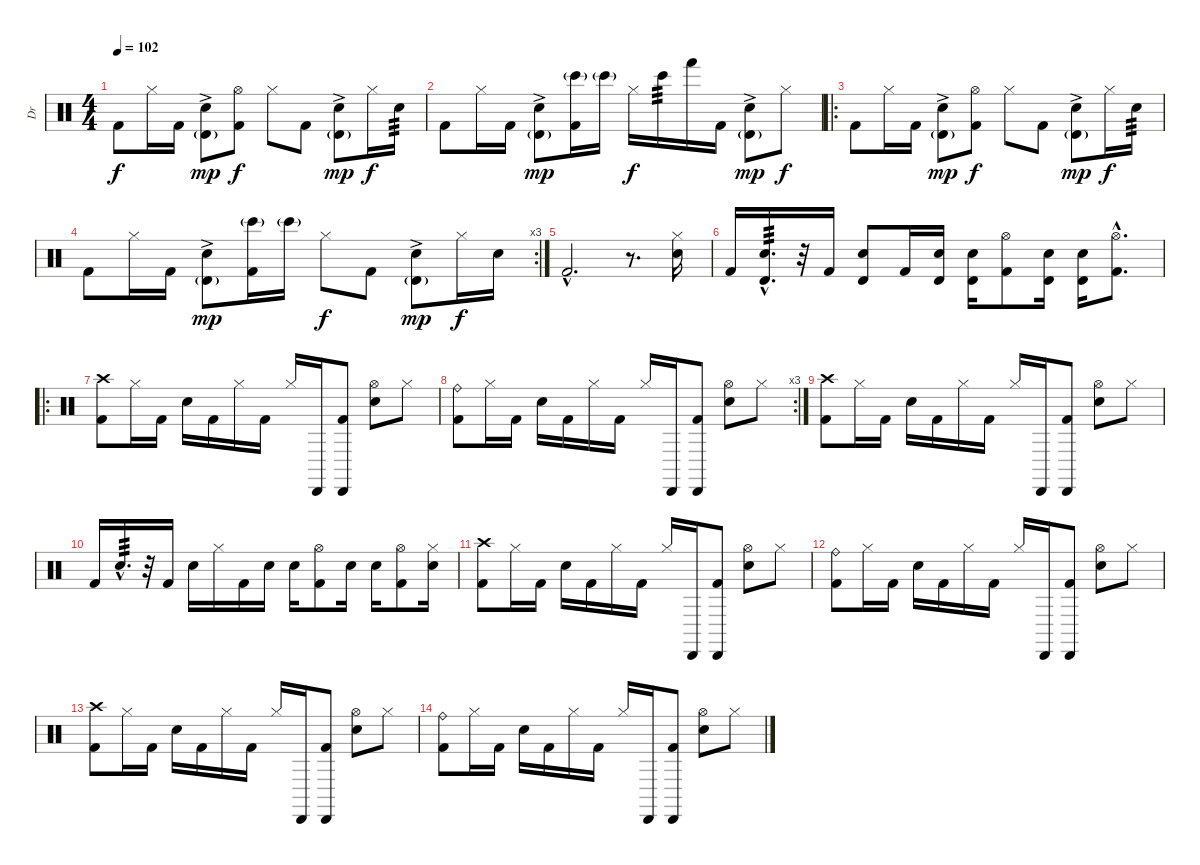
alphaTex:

\track ("Dr" "Dr") {instrument percussion}
\staff {score}
\articulation defaults
\ts (4 4)
\tempo 102
\clef neutral
\ks c "Kick (hit) 2".8{dy f} "Hi-Hat (closed)".16 "Kick (hit) 2".16
("Electric Snare (hit)"{ac} "Timbale high (hit)"{g}).8{dy mp} ("Hi-Hat (open)" "Kick (hit) 2").8{dy f} "Hi-Hat (closed)".8 "Kick (hit) 2".8 ("Electric Snare (hit)"{ac} "Timbale high (hit)"{g}).8{dy mp} "Hi-Hat (closed)".16{dy f} "Electric Snare (hit)".16{tp 3} |
"Kick (hit) 2".8 "Hi-Hat (closed)".16 "Kick (hit) 2".16 ("Electric Snare (hit)"{ac} "Timbale high (hit)"{g}).8{dy mp} ("Bongo High (hit)"{g} "Kick (hit) 2").16 "Bongo High (hit)"{g}.16 "Hi-Hat (closed)".16{dy f} "Bongo High (hit)".16{tp 3} "Hand (hit)".16 "Kick (hit) 2".16 ("Electric Snare (hit)"{ac} "Timbale high (hit)"{g}).8{dy mp} "Hi-Hat (closed)".8{dy f} |
\ro "Kick (hit) 2".8 "Hi-Hat (closed)".16 "Kick (hit) 2".16
("Electric Snare (hit)"{ac} "Timbale high (hit)"{g}).8{dy mp} ("Hi-Hat (open)" "Kick (hit) 2").8{dy f} "Hi-Hat (closed)".8 "Kick (hit) 2".8 ("Electric Snare (hit)"{ac} "Timbale high (hit)"{g}).8{dy mp} "Hi-Hat (closed)".16{dy f} "Electric Snare (hit)".16{tp 3} |
\rc 3 "Kick (hit) 2".8 "Hi-Hat (closed)".16 "Kick (hit) 2".16
("Electric Snare (hit)"{ac} "Timbale high (hit)"{g}).8{dy mp} ("Bongo High (hit)"{g} "Kick (hit) 2").16 "Bongo High (hit)"{g}.16 "Hi-Hat (closed)".8{dy f} "Kick (hit) 2".8 ("Electric Snare (hit)"{ac} "Timbale high (hit)"{g}).8{dy mp} "Hi-Hat (closed)".16{dy f} "Electric Snare (hit)".16 |
"Kick (hit) 2"{hac}.2{d} r.8{d} ("Hi-Hat (closed)" "Electric Snare (hit)").16 |
"Kick (hit) 2".16 ("Timbale high (hit)"{hac} "Electric Snare (hit)"{hac}).16{d tp 3} r.32 "Kick (hit) 2".16 ("Timbale high (hit)" "Electric Snare (hit)").8 "Kick (hit) 2".16 ("Timbale high (hit)" "Electric Snare (hit)").16 ("Timbale high (hit)" "Electric Snare (hit)").16 ("Hi-Hat (open)" "Kick (hit) 2").8 ("Timbale high (hit)" "Electric Snare (hit)").16 ("Timbale high (hit)" "Electric Snare (hit)").16 ("Hi-Hat (open)"{hac} "Kick (hit) 2"{hac}).8{d} |
\ro
("Crash high (hit)" "Kick (hit) 2").8 "Hi-Hat (closed)".16 "Kick (hit) 2".16 "Electric Snare (hit)".16 "Kick (hit) 2".16 "Hi-Hat (closed)".16 "Kick (hit) 2".16 "Hi-Hat (closed)".16 "Cabasa (hit)".16 ("Cabasa (hit)" "Kick (hit) 2").8 ("Hi-Hat (open)" "Electric Snare (hit)").8 "Hi-Hat (closed)".8 |
\rc 3
("Ride (bell)" "Kick (hit) 2").8 "Hi-Hat (closed)".16 "Kick (hit) 2".16 "Electric Snare (hit)".16 "Kick (hit) 2".16 "Hi-Hat (closed)".16 "Kick (hit) 2".16 "Hi-Hat (closed)".16 "Cabasa (hit)".16 ("Cabasa (hit)" "Kick (hit) 2").8 ("Hi-Hat (open)" "Electric Snare (hit)").8 "Hi-Hat (closed)".8 |
("Crash high (hit)" "Kick (hit) 2").8 "Hi-Hat (closed)".16 "Kick (hit) 2".16 "Electric Snare (hit)".16 "Kick (hit) 2".16 "Hi-Hat (closed)".16 "Kick (hit) 2".16 "Hi-Hat (closed)".16 "Cabasa (hit)".16 ("Cabasa (hit)" "Kick (hit) 2").8 ("Hi-Hat (open)" "Electric Snare (hit)").8 "Hi-Hat (closed)".8 |
"Kick (hit) 2".16 "Electric Snare (hit)"{hac}.16{d tp 3} r.32 "Kick (hit) 2".16 "Electric Snare (hit)".16 "Hi-Hat (closed)".16 "Kick (hit) 2".16 "Electric Snare (hit)".16 "Electric Snare (hit)".16 ("Hi-Hat (open)" "Kick (hit) 2").8 "Electric Snare (hit)".16 "Electric Snare (hit)".16 ("Hi-Hat (open)" "Kick (hit) 2").8 ("Hi-Hat (closed)" "Electric Snare (hit)").16 |
("Crash high (hit)" "Kick (hit) 2").8 "Hi-Hat (closed)".16 "Kick (hit) 2".16 "Electric Snare (hit)".16 "Kick (hit) 2".16 "Hi-Hat (closed)".16 "Kick (hit) 2".16 "Hi-Hat (closed)".16 "Cabasa (hit)".16 ("Cabasa (hit)" "Kick (hit) 2").8 ("Hi-Hat (open)" "Electric Snare (hit)").8 "Hi-Hat (closed)".8 |
("Ride (bell)" "Kick (hit) 2").8 "Hi-Hat (closed)".16 "Kick (hit) 2".16 "Electric Snare (hit)".16 "Kick (hit) 2".16 "Hi-Hat (closed)".16 "Kick (hit) 2".16 "Hi-Hat (closed)".16 "Cabasa (hit)".16 ("Cabasa (hit)" "Kick (hit) 2").8 ("Hi-Hat (open)" "Electric Snare (hit)").8 "Hi-Hat (closed)".8 |
("Crash high (hit)" "Kick (hit) 2").8 "Hi-Hat (closed)".16 "Kick (hit) 2".16 "Electric Snare (hit)".16 "Kick (hit) 2".16 "Hi-Hat (closed)".16 "Kick (hit) 2".16 "Hi-Hat (closed)".16 "Cabasa (hit)".16 ("Cabasa (hit)" "Kick (hit) 2").8 ("Hi-Hat (open)" "Electric Snare (hit)").8 "Hi-Hat (closed)".8 |
("Ride (bell)" "Kick (hit) 2").8 "Hi-Hat (closed)".16 "Kick (hit) 2".16 "Electric Snare (hit)".16 "Kick (hit) 2".16 "Hi-Hat (closed)".16 "Kick (hit) 2".16 "Hi-Hat (closed)".16 "Cabasa (hit)".16 ("Cabasa (hit)" "Kick (hit) 2").8 ("Hi-Hat (open)" "Electric Snare (hit)").8 "Hi-Hat (closed)".8
